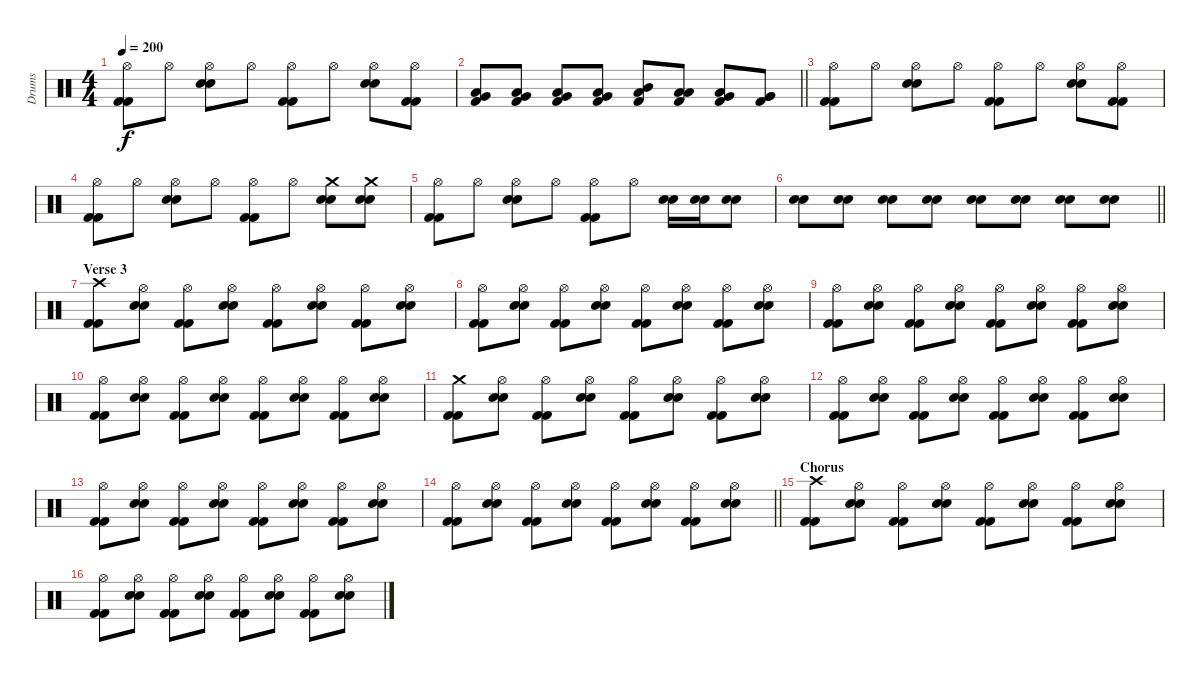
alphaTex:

\track ("Drums" "Drums") {instrument percussion}
\staff {score}
\articulation defaults
\ts (4 4)
\tempo 200
\clef neutral
\ks c
("Hi-Hat (open)" "Kick (hit) 2" "Kick (hit) 2").8{dy f} "Hi-Hat (open)".8 ("Hi-Hat (open)" "Snare (hit) 2" "Snare (hit) 2").8 "Hi-Hat (open)".8 ("Hi-Hat (open)" "Kick (hit) 2" "Kick (hit) 2").8 "Hi-Hat (open)".8 ("Hi-Hat (open)" "Snare (hit) 2" "Snare (hit) 2").8 ("Hi-Hat (open)" "Kick (hit) 2" "Kick (hit) 2").8 |
\barLineRight lightlight
("Low Tom (hit)" "Very Low Tom (hit)" "Kick (hit) 2").8 ("Low Tom (hit)" "Very Low Tom (hit)" "Kick (hit) 2").8 ("Low Tom (hit)" "Very Low Tom (hit)" "Kick (hit) 2").8 ("Low Tom (hit)" "Very Low Tom (hit)" "Kick (hit) 2").8 ("Mid Tom (hit)" "Low Tom (hit)" "Kick (hit) 2").8 ("Low Tom (hit)" "Low Tom (hit)" "Kick (hit) 2").8 ("Very Low Tom (hit)" "Low Tom (hit)" "Kick (hit) 2").8 ("Very Low Tom (hit)" "Very Low Tom (hit)" "Kick (hit) 2").8 |
("Hi-Hat (open)" "Kick (hit) 2" "Kick (hit) 2").8 "Hi-Hat (open)".8 ("Hi-Hat (open)" "Snare (hit) 2" "Snare (hit) 2").8 "Hi-Hat (open)".8 ("Hi-Hat (open)" "Kick (hit) 2" "Kick (hit) 2").8 "Hi-Hat (open)".8 ("Hi-Hat (open)" "Snare (hit) 2" "Snare (hit) 2").8 ("Hi-Hat (open)" "Kick (hit) 2" "Kick (hit) 2").8 |
("Hi-Hat (open)" "Kick (hit) 2" "Kick (hit) 2").8 "Hi-Hat (open)".8 ("Hi-Hat (open)" "Snare (hit) 2" "Snare (hit) 2").8 "Hi-Hat (open)".8 ("Hi-Hat (open)" "Kick (hit) 2" "Kick (hit) 2").8 "Hi-Hat (open)".8 ("Crash medium (hit)" "Snare (hit) 2" "Snare (hit) 2").8 ("Crash medium (hit)" "Snare (hit) 2" "Snare (hit) 2").8 |
("Hi-Hat (open)" "Kick (hit) 2" "Kick (hit) 2").8 "Hi-Hat (open)".8 ("Hi-Hat (open)" "Snare (hit) 2" "Snare (hit) 2").8 "Hi-Hat (open)".8 ("Hi-Hat (open)" "Kick (hit) 2" "Kick (hit) 2").8 "Hi-Hat (open)".8 ("Snare (hit) 2" "Snare (hit) 2").16 ("Snare (hit) 2" "Snare (hit) 2").16 ("Snare (hit) 2" "Snare (hit) 2").8 |
\barLineRight lightlight
("Snare (hit) 2" "Snare (hit) 2").8 ("Snare (hit) 2" "Snare (hit) 2").8 ("Snare (hit) 2" "Snare (hit) 2").8 ("Snare (hit) 2" "Snare (hit) 2").8 ("Snare (hit) 2" "Snare (hit) 2").8 ("Snare (hit) 2" "Snare (hit) 2").8 ("Snare (hit) 2" "Snare (hit) 2").8 ("Snare (hit) 2" "Snare (hit) 2").8 |
\section ("" "Verse 3")
("Crash high (hit)" "Kick (hit) 2" "Kick (hit) 2").8 ("Hi-Hat (open)" "Snare (hit) 2" "Snare (hit) 2").8 ("Hi-Hat (open)" "Kick (hit) 2" "Kick (hit) 2").8 ("Hi-Hat (open)" "Snare (hit) 2" "Snare (hit) 2").8 ("Hi-Hat (open)" "Kick (hit) 2" "Kick (hit) 2").8 ("Hi-Hat (open)" "Snare (hit) 2" "Snare (hit) 2").8 ("Hi-Hat (open)" "Kick (hit) 2" "Kick (hit) 2").8 ("Hi-Hat (open)" "Snare (hit) 2" "Snare (hit) 2").8 |
("Hi-Hat (open)" "Kick (hit) 2" "Kick (hit) 2").8 ("Hi-Hat (open)" "Snare (hit) 2" "Snare (hit) 2").8 ("Hi-Hat (open)" "Kick (hit) 2" "Kick (hit) 2").8 ("Hi-Hat (open)" "Snare (hit) 2" "Snare (hit) 2").8 ("Hi-Hat (open)" "Kick (hit) 2" "Kick (hit) 2").8 ("Hi-Hat (open)" "Snare (hit) 2" "Snare (hit) 2").8 ("Hi-Hat (open)" "Kick (hit) 2" "Kick (hit) 2").8 ("Hi-Hat (open)" "Snare (hit) 2" "Snare (hit) 2").8 |
("Hi-Hat (open)" "Kick (hit) 2" "Kick (hit) 2").8 ("Hi-Hat (open)" "Snare (hit) 2" "Snare (hit) 2").8 ("Hi-Hat (open)" "Kick (hit) 2" "Kick (hit) 2").8 ("Hi-Hat (open)" "Snare (hit) 2" "Snare (hit) 2").8 ("Hi-Hat (open)" "Kick (hit) 2" "Kick (hit) 2").8 ("Hi-Hat (open)" "Snare (hit) 2" "Snare (hit) 2").8 ("Hi-Hat (open)" "Kick (hit) 2" "Kick (hit) 2").8 ("Hi-Hat (open)" "Snare (hit) 2" "Snare (hit) 2").8 |
("Hi-Hat (open)" "Kick (hit) 2" "Kick (hit) 2").8 ("Hi-Hat (open)" "Snare (hit) 2" "Snare (hit) 2").8 ("Hi-Hat (open)" "Kick (hit) 2" "Kick (hit) 2").8 ("Hi-Hat (open)" "Snare (hit) 2" "Snare (hit) 2").8 ("Hi-Hat (open)" "Kick (hit) 2" "Kick (hit) 2").8 ("Hi-Hat (open)" "Snare (hit) 2" "Snare (hit) 2").8 ("Hi-Hat (open)" "Kick (hit) 2" "Kick (hit) 2").8 ("Hi-Hat (open)" "Snare (hit) 2" "Snare (hit) 2").8 |
("Crash medium (hit)" "Kick (hit) 2" "Kick (hit) 2").8 ("Hi-Hat (open)" "Snare (hit) 2" "Snare (hit) 2").8 ("Hi-Hat (open)" "Kick (hit) 2" "Kick (hit) 2").8 ("Hi-Hat (open)" "Snare (hit) 2" "Snare (hit) 2").8 ("Hi-Hat (open)" "Kick (hit) 2" "Kick (hit) 2").8 ("Hi-Hat (open)" "Snare (hit) 2" "Snare (hit) 2").8 ("Hi-Hat (open)" "Kick (hit) 2" "Kick (hit) 2").8 ("Hi-Hat (open)" "Snare (hit) 2" "Snare (hit) 2").8 |
("Hi-Hat (open)" "Kick (hit) 2" "Kick (hit) 2").8 ("Hi-Hat (open)" "Snare (hit) 2" "Snare (hit) 2").8 ("Hi-Hat (open)" "Kick (hit) 2" "Kick (hit) 2").8 ("Hi-Hat (open)" "Snare (hit) 2" "Snare (hit) 2").8 ("Hi-Hat (open)" "Kick (hit) 2" "Kick (hit) 2").8 ("Hi-Hat (open)" "Snare (hit) 2" "Snare (hit) 2").8 ("Hi-Hat (open)" "Kick (hit) 2" "Kick (hit) 2").8 ("Hi-Hat (open)" "Snare (hit) 2" "Snare (hit) 2").8 |
("Hi-Hat (open)" "Kick (hit) 2" "Kick (hit) 2").8 ("Hi-Hat (open)" "Snare (hit) 2" "Snare (hit) 2").8 ("Hi-Hat (open)" "Kick (hit) 2" "Kick (hit) 2").8 ("Hi-Hat (open)" "Snare (hit) 2" "Snare (hit) 2").8 ("Hi-Hat (open)" "Kick (hit) 2" "Kick (hit) 2").8 ("Hi-Hat (open)" "Snare (hit) 2" "Snare (hit) 2").8 ("Hi-Hat (open)" "Kick (hit) 2" "Kick (hit) 2").8 ("Hi-Hat (open)" "Snare (hit) 2" "Snare (hit) 2").8 |
\barLineRight lightlight
("Hi-Hat (open)" "Kick (hit) 2" "Kick (hit) 2").8 ("Hi-Hat (open)" "Snare (hit) 2" "Snare (hit) 2").8 ("Hi-Hat (open)" "Kick (hit) 2" "Kick (hit) 2").8 ("Hi-Hat (open)" "Snare (hit) 2" "Snare (hit) 2").8 ("Hi-Hat (open)" "Kick (hit) 2" "Kick (hit) 2").8 ("Hi-Hat (open)" "Snare (hit) 2" "Snare (hit) 2").8 ("Hi-Hat (open)" "Kick (hit) 2" "Kick (hit) 2").8 ("Hi-Hat (open)" "Snare (hit) 2" "Snare (hit) 2").8 |
\section ("" "Chorus")
("Crash high (hit)" "Kick (hit) 2" "Kick (hit) 2").8 ("Hi-Hat (open)" "Snare (hit) 2" "Snare (hit) 2").8 ("Hi-Hat (open)" "Kick (hit) 2" "Kick (hit) 2").8 ("Hi-Hat (open)" "Snare (hit) 2" "Snare (hit) 2").8 ("Hi-Hat (open)" "Kick (hit) 2" "Kick (hit) 2").8 ("Hi-Hat (open)" "Snare (hit) 2" "Snare (hit) 2").8 ("Hi-Hat (open)" "Kick (hit) 2" "Kick (hit) 2").8 ("Hi-Hat (open)" "Snare (hit) 2" "Snare (hit) 2").8 |
("Hi-Hat (open)" "Kick (hit) 2" "Kick (hit) 2").8 ("Hi-Hat (open)" "Snare (hit) 2" "Snare (hit) 2").8 ("Hi-Hat (open)" "Kick (hit) 2" "Kick (hit) 2").8 ("Hi-Hat (open)" "Snare (hit) 2" "Snare (hit) 2").8 ("Hi-Hat (open)" "Kick (hit) 2" "Kick (hit) 2").8 ("Hi-Hat (open)" "Snare (hit) 2" "Snare (hit) 2").8 ("Hi-Hat (open)" "Kick (hit) 2" "Kick (hit) 2").8 ("Hi-Hat (open)" "Snare (hit) 2" "Snare (hit) 2").8
